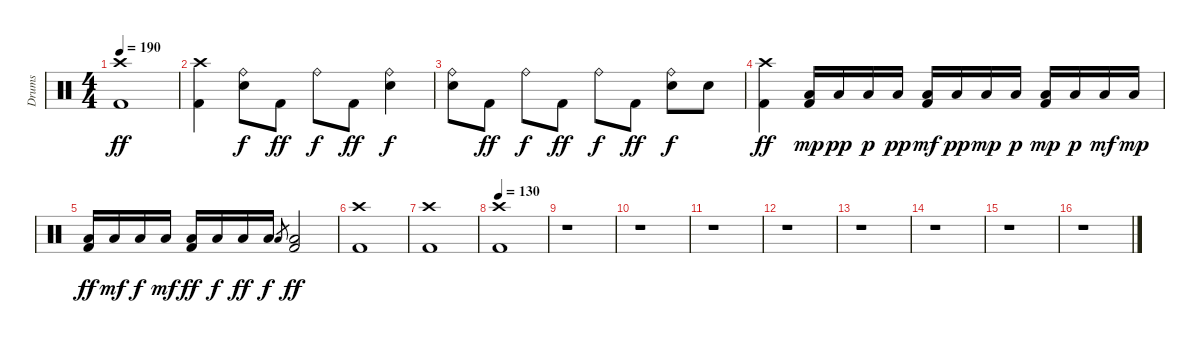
\track ("Drums" "Drums") {instrument percussion}
\staff {score}
\articulation defaults
\ts (4 4)
\tempo 190
\clef neutral
\ks c
("Crash high (hit)" "Kick (hit) 2").1{dy ff} |
("Crash high (hit)" "Kick (hit) 2").4 ("Ride (bell)" "Snare (hit) 2").8{dy f} "Kick (hit) 2".8{dy ff} "Ride (bell)".8{dy f} "Kick (hit) 2".8{dy ff} ("Ride (bell)" "Snare (hit) 2").4{dy f} |
("Ride (bell)" "Snare (hit) 2").8 "Kick (hit) 2".8{dy ff} "Ride (bell)".8{dy f} "Kick (hit) 2".8{dy ff} "Ride (bell)".8{dy f} "Kick (hit) 2".8{dy ff} ("Ride (bell)" "Snare (hit) 2").8{dy f} "Snare (hit) 2".8 |
("Crash high (hit)" "Kick (hit) 2").4{dy ff} ("Low Floor Tom (hit)" "Kick (hit) 2").16{dy mp} "Low Floor Tom (hit)".16{dy pp} "Low Floor Tom (hit)".16{dy p} "Low Floor Tom (hit)".16{dy pp} ("Low Floor Tom (hit)" "Kick (hit) 2").16{dy mf} "Low Floor Tom (hit)".16{dy pp} "Low Floor Tom (hit)".16{dy mp} "Low Floor Tom (hit)".16{dy p} ("Low Floor Tom (hit)" "Kick (hit) 2").16{dy mp} "Low Floor Tom (hit)".16{dy p} "Low Floor Tom (hit)".16{dy mf} "Low Floor Tom (hit)".16{dy mp} |
("Low Floor Tom (hit)" "Kick (hit) 2").16{dy ff} "Low Floor Tom (hit)".16{dy mf} "Low Floor Tom (hit)".16{dy f} "Low Floor Tom (hit)".16{dy mf} ("Low Floor Tom (hit)" "Kick (hit) 2").16{dy ff} "Low Floor Tom (hit)".16{dy f} "Low Floor Tom (hit)".16{dy ff} "Low Floor Tom (hit)".16{dy f} "Low Floor Tom (hit)".8{gr} ("Low Floor Tom (hit)" "Kick (hit) 2").2{dy ff} |
("Crash high (hit)" "Kick (hit) 2").1 |
("Crash high (hit)" "Kick (hit) 2").1 |
\tempo 130
("Crash high (hit)" "Kick (hit) 2").1 |
r.1 |
r.1 |
r.1 |
r.1 |
r.1 |
r.1 |
r.1 |
r.1
